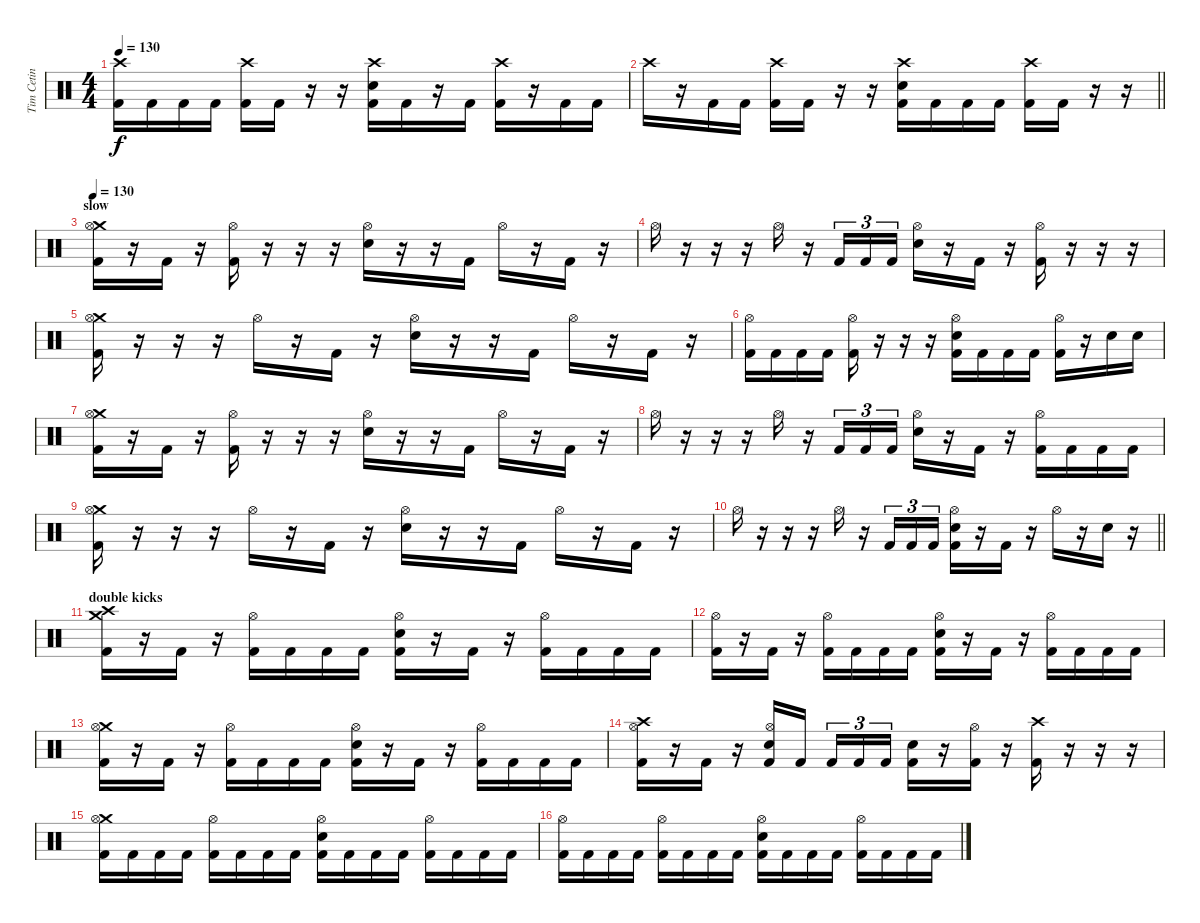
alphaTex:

\track ("Tim Cetin" "Tim Cetin") {instrument percussion}
\staff {score}
\articulation defaults
\ts (4 4)
\tempo 130
\clef neutral
\ks c
("Crash high (hit)" "Kick (hit) 2").16{dy f} "Kick (hit) 2".16 "Kick (hit) 2".16 "Kick (hit) 2".16 ("Crash high (hit)" "Kick (hit) 2").16 "Kick (hit) 2".16 r.16 r.16 ("Crash high (hit)" "Electric Snare (hit)" "Kick (hit) 2").16 "Kick (hit) 2".16 r.16 "Kick (hit) 2".16 ("Crash high (hit)" "Kick (hit) 2").16 r.16 "Kick (hit) 2".16 "Kick (hit) 2".16 |
\barLineRight lightlight "Crash high (hit)".16
r.16 "Kick (hit) 2".16 "Kick (hit) 2".16 ("Crash high (hit)" "Kick (hit) 2").16 "Kick (hit) 2".16 r.16 r.16 ("Crash high (hit)" "Electric Snare (hit)" "Kick (hit) 2").16 "Kick (hit) 2".16 "Kick (hit) 2".16 "Kick (hit) 2".16 ("Crash high (hit)" "Kick (hit) 2").16 "Kick (hit) 2".16 r.16 r.16 |
\section ("" "slow")
\tempo 130
("Crash medium (hit)" "Hi-Hat (open)" "Kick (hit) 2").16 r.16 "Kick (hit) 2".16 r.16 ("Hi-Hat (open)" "Kick (hit) 2").16 r.16 r.16 r.16 ("Hi-Hat (open)" "Electric Snare (hit)").16 r.16 r.16 "Kick (hit) 2".16 "Hi-Hat (open)".16 r.16 "Kick (hit) 2".16 r.16 |
"Hi-Hat (open)".16 r.16 r.16 r.16 "Hi-Hat (open)".16 r.16 "Kick (hit) 2".16{tu (3 2)} "Kick (hit) 2".16{tu (3 2)} "Kick (hit) 2".16{tu (3 2)} ("Hi-Hat (open)" "Electric Snare (hit)").16 r.16 "Kick (hit) 2".16 r.16 ("Hi-Hat (open)" "Kick (hit) 2").16 r.16 r.16 r.16 |
("Crash medium (hit)" "Hi-Hat (open)" "Kick (hit) 2").16 r.16 r.16 r.16 "Hi-Hat (open)".16 r.16 "Kick (hit) 2".16 r.16 ("Hi-Hat (open)" "Electric Snare (hit)").16 r.16 r.16 "Kick (hit) 2".16 "Hi-Hat (open)".16 r.16 "Kick (hit) 2".16 r.16 |
("Hi-Hat (open)" "Kick (hit) 2").16 "Kick (hit) 2".16 "Kick (hit) 2".16 "Kick (hit) 2".16 ("Hi-Hat (open)" "Kick (hit) 2").16 r.16 r.16 r.16 ("Hi-Hat (open)" "Electric Snare (hit)" "Kick (hit) 2").16 "Kick (hit) 2".16 "Kick (hit) 2".16 "Kick (hit) 2".16 ("Hi-Hat (open)" "Kick (hit) 2").16 r.16 "Electric Snare (hit)".16 "Electric Snare (hit)".16 |
("Crash medium (hit)" "Hi-Hat (open)" "Kick (hit) 2").16 r.16 "Kick (hit) 2".16 r.16 ("Hi-Hat (open)" "Kick (hit) 2").16 r.16 r.16 r.16 ("Hi-Hat (open)" "Electric Snare (hit)").16 r.16 r.16 "Kick (hit) 2".16 "Hi-Hat (open)".16 r.16 "Kick (hit) 2".16 r.16 |
"Hi-Hat (open)".16 r.16 r.16 r.16 "Hi-Hat (open)".16 r.16 "Kick (hit) 2".16{tu (3 2)} "Kick (hit) 2".16{tu (3 2)} "Kick (hit) 2".16{tu (3 2)} ("Hi-Hat (open)" "Electric Snare (hit)").16 r.16 "Kick (hit) 2".16 r.16 ("Hi-Hat (open)" "Kick (hit) 2").16 "Kick (hit) 2".16 "Kick (hit) 2".16 "Kick (hit) 2".16 |
("Crash medium (hit)" "Hi-Hat (open)" "Kick (hit) 2").16 r.16 r.16 r.16 "Hi-Hat (open)".16 r.16 "Kick (hit) 2".16 r.16 ("Hi-Hat (open)" "Electric Snare (hit)").16 r.16 r.16 "Kick (hit) 2".16 "Hi-Hat (open)".16 r.16 "Kick (hit) 2".16 r.16 |
\barLineRight lightlight "Hi-Hat (open)".16
r.16 r.16 r.16 "Hi-Hat (open)".16 r.16 "Kick (hit) 2".16{tu (3 2)} "Kick (hit) 2".16{tu (3 2)} "Kick (hit) 2".16{tu (3 2)} ("Hi-Hat (open)" "Electric Snare (hit)" "Kick (hit) 2").16 r.16 "Kick (hit) 2".16 r.16 "Hi-Hat (open)".16 r.16 "Electric Snare (hit)".16 r.16 |
\section ("" "double kicks")
("Crash high (hit)" "Crash medium (hit)" "Kick (hit) 2").16 r.16 "Kick (hit) 2".16 r.16 ("Hi-Hat (open)" "Kick (hit) 2").16 "Kick (hit) 2".16 "Kick (hit) 2".16 "Kick (hit) 2".16 ("Hi-Hat (open)" "Electric Snare (hit)" "Kick (hit) 2").16 r.16 "Kick (hit) 2".16 r.16 ("Hi-Hat (open)" "Kick (hit) 2").16 "Kick (hit) 2".16 "Kick (hit) 2".16 "Kick (hit) 2".16 |
("Hi-Hat (open)" "Kick (hit) 2").16 r.16 "Kick (hit) 2".16 r.16 ("Hi-Hat (open)" "Kick (hit) 2").16 "Kick (hit) 2".16 "Kick (hit) 2".16 "Kick (hit) 2".16 ("Hi-Hat (open)" "Electric Snare (hit)" "Kick (hit) 2").16 r.16 "Kick (hit) 2".16 r.16 ("Hi-Hat (open)" "Kick (hit) 2").16 "Kick (hit) 2".16 "Kick (hit) 2".16 "Kick (hit) 2".16 |
("Crash medium (hit)" "Hi-Hat (open)" "Kick (hit) 2").16 r.16 "Kick (hit) 2".16 r.16 ("Hi-Hat (open)" "Kick (hit) 2").16 "Kick (hit) 2".16 "Kick (hit) 2".16 "Kick (hit) 2".16 ("Hi-Hat (open)" "Electric Snare (hit)" "Kick (hit) 2").16 r.16 "Kick (hit) 2".16 r.16 ("Hi-Hat (open)" "Kick (hit) 2").16 "Kick (hit) 2".16 "Kick (hit) 2".16 "Kick (hit) 2".16 |
("Crash high (hit)" "Hi-Hat (open)" "Kick (hit) 2").16 r.16 "Kick (hit) 2".16 r.16 ("Hi-Hat (open)" "Snare (hit) 2" "Kick (hit) 2").16 "Kick (hit) 2".16{beam splitsecondary} "Kick (hit) 2".16{tu (3 2)} "Kick (hit) 2".16{tu (3 2)} "Kick (hit) 2".16{tu (3 2)} ("Snare (hit) 2" "Kick (hit) 2").16 r.16 ("Hi-Hat (open)" "Kick (hit) 2").16 r.16 ("Crash high (hit)" "Kick (hit) 2").16 r.16 r.16 r.16 |
("Crash medium (hit)" "Hi-Hat (open)" "Kick (hit) 2").16 "Kick (hit) 2".16 "Kick (hit) 2".16 "Kick (hit) 2".16 ("Hi-Hat (open)" "Kick (hit) 2").16 "Kick (hit) 2".16 "Kick (hit) 2".16 "Kick (hit) 2".16 ("Hi-Hat (open)" "Electric Snare (hit)" "Kick (hit) 2").16 "Kick (hit) 2".16 "Kick (hit) 2".16 "Kick (hit) 2".16 ("Hi-Hat (open)" "Kick (hit) 2").16 "Kick (hit) 2".16 "Kick (hit) 2".16 "Kick (hit) 2".16 |
("Hi-Hat (open)" "Kick (hit) 2").16 "Kick (hit) 2".16 "Kick (hit) 2".16 "Kick (hit) 2".16 ("Hi-Hat (open)" "Kick (hit) 2").16 "Kick (hit) 2".16 "Kick (hit) 2".16 "Kick (hit) 2".16 ("Hi-Hat (open)" "Electric Snare (hit)" "Kick (hit) 2").16 "Kick (hit) 2".16 "Kick (hit) 2".16 "Kick (hit) 2".16 ("Hi-Hat (open)" "Kick (hit) 2").16 "Kick (hit) 2".16 "Kick (hit) 2".16 "Kick (hit) 2".16
